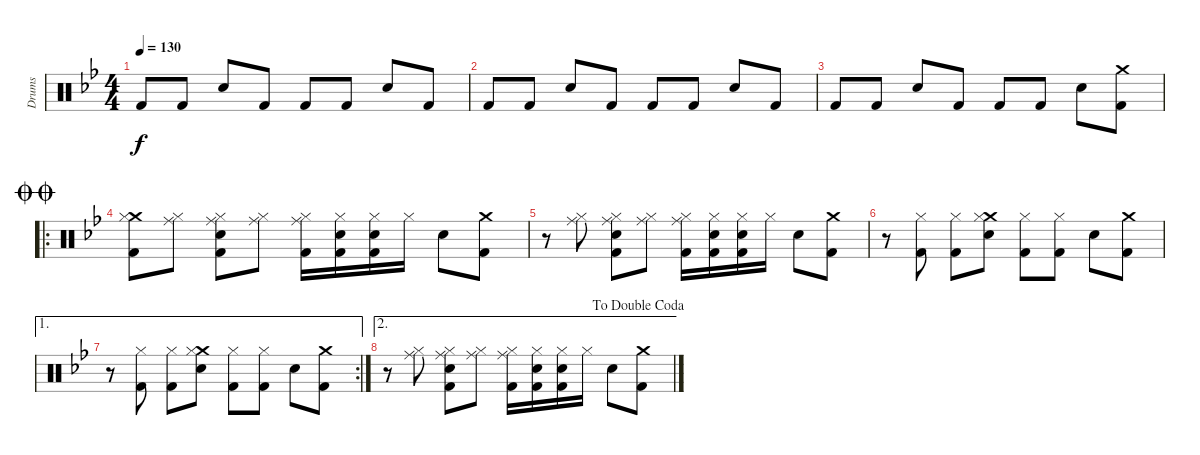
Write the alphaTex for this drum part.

\track ("Drums" "Drums") {instrument percussion}
\staff {score}
\articulation defaults
\ts (4 4)
\tempo 130
\clef neutral
\ks bb "Kick (hit) 2".8{dy f} "Kick (hit) 2".8 "Electric Snare (hit)".8 "Kick (hit) 2".8 "Kick (hit) 2".8 "Kick (hit) 2".8 "Electric Snare (hit)".8 "Kick (hit) 2".8
|
"Kick (hit) 2".8 "Kick (hit) 2".8 "Electric Snare (hit)".8 "Kick (hit) 2".8 "Kick (hit) 2".8 "Kick (hit) 2".8 "Electric Snare (hit)".8 "Kick (hit) 2".8 |
"Kick (hit) 2".8 "Kick (hit) 2".8 "Electric Snare (hit)".8 "Kick (hit) 2".8 "Kick (hit) 2".8 "Kick (hit) 2".8 "Electric Snare (hit)".8 ("Crash medium (hit)" "Kick (hit) 2").8 |
\ro
\jump doublecoda
("Crash medium (hit)" "Hi-Hat (closed)" "Kick (hit) 2").8 ("Ride (middle)" "Hi-Hat (closed)").8 ("Ride (middle)" "Hi-Hat (closed)" "Electric Snare (hit)" "Kick (hit) 2").8 ("Ride (middle)" "Hi-Hat (closed)").8 ("Ride (middle)" "Hi-Hat (closed)" "Kick (hit) 2").16 ("Hi-Hat (closed)" "Electric Snare (hit)" "Kick (hit) 2").16 ("Hi-Hat (closed)" "Electric Snare (hit)" "Kick (hit) 2").16 "Hi-Hat (closed)".16 "Electric Snare (hit)".8 ("Crash medium (hit)" "Kick (hit) 2").8 |
r.8 ("Ride (middle)" "Hi-Hat (closed)").8 ("Ride (middle)" "Hi-Hat (closed)" "Electric Snare (hit)" "Kick (hit) 2").8 ("Ride (middle)" "Hi-Hat (closed)").8 ("Ride (middle)" "Hi-Hat (closed)" "Kick (hit) 2").16 ("Hi-Hat (closed)" "Electric Snare (hit)" "Kick (hit) 2").16 ("Hi-Hat (closed)" "Electric Snare (hit)" "Kick (hit) 2").16 "Hi-Hat (closed)".16 "Electric Snare (hit)".8 ("Crash medium (hit)" "Kick (hit) 2").8 |
r.8 ("Hi-Hat (closed)" "Kick (hit) 2").8 ("Hi-Hat (closed)" "Kick (hit) 2").8 ("Crash medium (hit)" "Hi-Hat (closed)" "Electric Snare (hit)").8 ("Hi-Hat (closed)" "Kick (hit) 2").8 ("Hi-Hat (closed)" "Kick (hit) 2").8 "Electric Snare (hit)".8 ("Crash medium (hit)" "Kick (hit) 2").8 |
\ae 1
\rc 2
r.8 ("Hi-Hat (closed)" "Kick (hit) 2").8 ("Hi-Hat (closed)" "Kick (hit) 2").8 ("Crash medium (hit)" "Hi-Hat (closed)" "Electric Snare (hit)").8 ("Hi-Hat (closed)" "Kick (hit) 2").8 ("Hi-Hat (closed)" "Kick (hit) 2").8 "Electric Snare (hit)".8 ("Crash medium (hit)" "Kick (hit) 2").8 |
\ae 2
\jump dadoublecoda
r.8 ("Ride (middle)" "Hi-Hat (closed)").8 ("Ride (middle)" "Hi-Hat (closed)" "Electric Snare (hit)" "Kick (hit) 2").8 ("Ride (middle)" "Hi-Hat (closed)").8 ("Ride (middle)" "Hi-Hat (closed)" "Kick (hit) 2").16 ("Hi-Hat (closed)" "Electric Snare (hit)" "Kick (hit) 2").16 ("Hi-Hat (closed)" "Electric Snare (hit)" "Kick (hit) 2").16 "Hi-Hat (closed)".16 "Electric Snare (hit)".8 ("Crash medium (hit)" "Kick (hit) 2").8
